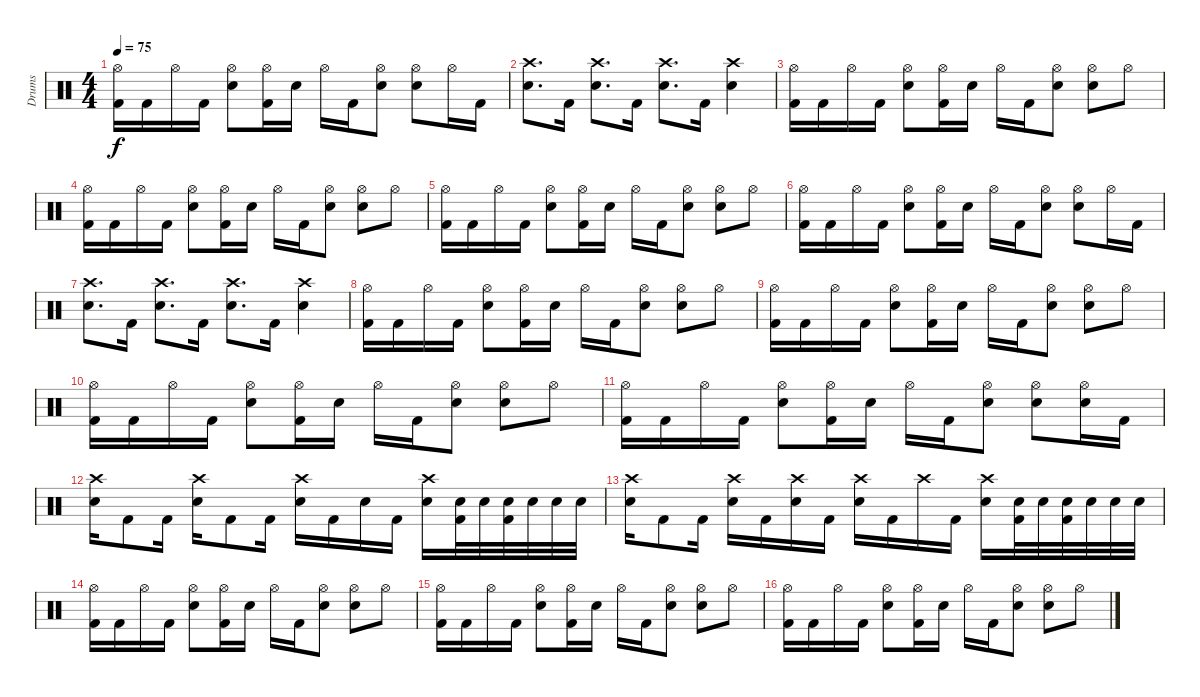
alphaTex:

\track ("Drums" "Drums") {instrument percussion}
\staff {score}
\articulation defaults
\ts (4 4)
\tempo 75
\clef neutral
\ks c
("Hi-Hat (open)" "Kick (hit) 2").16{dy f} "Kick (hit) 2".16 "Hi-Hat (open)".16 "Kick (hit) 2".16 ("Hi-Hat (open)" "Snare (hit) 2").8 ("Hi-Hat (open)" "Kick (hit) 2").16 "Snare (hit) 2".16 "Hi-Hat (open)".16 "Kick (hit) 2".16 ("Hi-Hat (open)" "Snare (hit) 2").8 ("Hi-Hat (open)" "Snare (hit) 2").8 "Hi-Hat (open)".16 "Kick (hit) 2".16 |
("Crash high (hit)" "Snare (hit) 2").8{d} "Kick (hit) 2".16 ("Crash high (hit)" "Snare (hit) 2").8{d} "Kick (hit) 2".16 ("Crash high (hit)" "Snare (hit) 2").8{d} "Kick (hit) 2".16 ("Crash high (hit)" "Snare (hit) 2").4 |
("Hi-Hat (open)" "Kick (hit) 2").16 "Kick (hit) 2".16 "Hi-Hat (open)".16 "Kick (hit) 2".16 ("Hi-Hat (open)" "Snare (hit) 2").8 ("Hi-Hat (open)" "Kick (hit) 2").16 "Snare (hit) 2".16 "Hi-Hat (open)".16 "Kick (hit) 2".16 ("Hi-Hat (open)" "Snare (hit) 2").8 ("Hi-Hat (open)" "Snare (hit) 2").8 "Hi-Hat (open)".8 |
("Hi-Hat (open)" "Kick (hit) 2").16 "Kick (hit) 2".16 "Hi-Hat (open)".16 "Kick (hit) 2".16 ("Hi-Hat (open)" "Snare (hit) 2").8 ("Hi-Hat (open)" "Kick (hit) 2").16 "Snare (hit) 2".16 "Hi-Hat (open)".16 "Kick (hit) 2".16 ("Hi-Hat (open)" "Snare (hit) 2").8 ("Hi-Hat (open)" "Snare (hit) 2").8 "Hi-Hat (open)".8 |
("Hi-Hat (open)" "Kick (hit) 2").16 "Kick (hit) 2".16 "Hi-Hat (open)".16 "Kick (hit) 2".16 ("Hi-Hat (open)" "Snare (hit) 2").8 ("Hi-Hat (open)" "Kick (hit) 2").16 "Snare (hit) 2".16 "Hi-Hat (open)".16 "Kick (hit) 2".16 ("Hi-Hat (open)" "Snare (hit) 2").8 ("Hi-Hat (open)" "Snare (hit) 2").8 "Hi-Hat (open)".8 |
("Hi-Hat (open)" "Kick (hit) 2").16 "Kick (hit) 2".16 "Hi-Hat (open)".16 "Kick (hit) 2".16 ("Hi-Hat (open)" "Snare (hit) 2").8 ("Hi-Hat (open)" "Kick (hit) 2").16 "Snare (hit) 2".16 "Hi-Hat (open)".16 "Kick (hit) 2".16 ("Hi-Hat (open)" "Snare (hit) 2").8 ("Hi-Hat (open)" "Snare (hit) 2").8 "Hi-Hat (open)".16 "Kick (hit) 2".16 |
("Crash high (hit)" "Snare (hit) 2").8{d} "Kick (hit) 2".16 ("Crash high (hit)" "Snare (hit) 2").8{d} "Kick (hit) 2".16 ("Crash high (hit)" "Snare (hit) 2").8{d} "Kick (hit) 2".16 ("Crash high (hit)" "Snare (hit) 2").4 |
("Hi-Hat (open)" "Kick (hit) 2").16 "Kick (hit) 2".16 "Hi-Hat (open)".16 "Kick (hit) 2".16 ("Hi-Hat (open)" "Snare (hit) 2").8 ("Hi-Hat (open)" "Kick (hit) 2").16 "Snare (hit) 2".16 "Hi-Hat (open)".16 "Kick (hit) 2".16 ("Hi-Hat (open)" "Snare (hit) 2").8 ("Hi-Hat (open)" "Snare (hit) 2").8 "Hi-Hat (open)".8 |
("Hi-Hat (open)" "Kick (hit) 2").16 "Kick (hit) 2".16 "Hi-Hat (open)".16 "Kick (hit) 2".16 ("Hi-Hat (open)" "Snare (hit) 2").8 ("Hi-Hat (open)" "Kick (hit) 2").16 "Snare (hit) 2".16 "Hi-Hat (open)".16 "Kick (hit) 2".16 ("Hi-Hat (open)" "Snare (hit) 2").8 ("Hi-Hat (open)" "Snare (hit) 2").8 "Hi-Hat (open)".8 |
("Hi-Hat (open)" "Kick (hit) 2").16 "Kick (hit) 2".16 "Hi-Hat (open)".16 "Kick (hit) 2".16 ("Hi-Hat (open)" "Snare (hit) 2").8 ("Hi-Hat (open)" "Kick (hit) 2").16 "Snare (hit) 2".16 "Hi-Hat (open)".16 "Kick (hit) 2".16 ("Hi-Hat (open)" "Snare (hit) 2").8 ("Hi-Hat (open)" "Snare (hit) 2").8 "Hi-Hat (open)".8 |
("Hi-Hat (open)" "Kick (hit) 2").16 "Kick (hit) 2".16 "Hi-Hat (open)".16 "Kick (hit) 2".16 ("Hi-Hat (open)" "Snare (hit) 2").8 ("Hi-Hat (open)" "Kick (hit) 2").16 "Snare (hit) 2".16 "Hi-Hat (open)".16 "Kick (hit) 2".16 ("Hi-Hat (open)" "Snare (hit) 2").8 ("Hi-Hat (open)" "Snare (hit) 2").8 ("Hi-Hat (open)" "Snare (hit) 2").16 "Kick (hit) 2".16 |
("Crash high (hit)" "Snare (hit) 2").16 "Kick (hit) 2".8 "Kick (hit) 2".16 ("Crash high (hit)" "Snare (hit) 2").16 "Kick (hit) 2".8 "Kick (hit) 2".16 ("Crash high (hit)" "Snare (hit) 2").16 "Kick (hit) 2".16 "Snare (hit) 2".16 "Kick (hit) 2".16 ("Crash high (hit)" "Snare (hit) 2").16 ("Snare (hit) 2" "Kick (hit) 2").32 "Snare (hit) 2".32 ("Snare (hit) 2" "Kick (hit) 2").32 "Snare (hit) 2".32 "Snare (hit) 2".32 "Snare (hit) 2".32 |
("Crash high (hit)" "Snare (hit) 2").16 "Kick (hit) 2".8 "Kick (hit) 2".16 ("Crash high (hit)" "Snare (hit) 2").16 "Kick (hit) 2".16 ("Crash high (hit)" "Snare (hit) 2").16 "Kick (hit) 2".16 ("Crash high (hit)" "Snare (hit) 2").16 "Kick (hit) 2".16 "Crash high (hit)".16 "Kick (hit) 2".16 ("Crash high (hit)" "Snare (hit) 2").16 ("Snare (hit) 2" "Kick (hit) 2").32 "Snare (hit) 2".32 ("Snare (hit) 2" "Kick (hit) 2").32 "Snare (hit) 2".32 "Snare (hit) 2".32 "Snare (hit) 2".32 |
("Hi-Hat (open)" "Kick (hit) 2").16 "Kick (hit) 2".16 "Hi-Hat (open)".16 "Kick (hit) 2".16 ("Hi-Hat (open)" "Snare (hit) 2").8 ("Hi-Hat (open)" "Kick (hit) 2").16 "Snare (hit) 2".16 "Hi-Hat (open)".16 "Kick (hit) 2".16 ("Hi-Hat (open)" "Snare (hit) 2").8 ("Hi-Hat (open)" "Snare (hit) 2").8 "Hi-Hat (open)".8 |
("Hi-Hat (open)" "Kick (hit) 2").16 "Kick (hit) 2".16 "Hi-Hat (open)".16 "Kick (hit) 2".16 ("Hi-Hat (open)" "Snare (hit) 2").8 ("Hi-Hat (open)" "Kick (hit) 2").16 "Snare (hit) 2".16 "Hi-Hat (open)".16 "Kick (hit) 2".16 ("Hi-Hat (open)" "Snare (hit) 2").8 ("Hi-Hat (open)" "Snare (hit) 2").8 "Hi-Hat (open)".8 |
("Hi-Hat (open)" "Kick (hit) 2").16 "Kick (hit) 2".16 "Hi-Hat (open)".16 "Kick (hit) 2".16 ("Hi-Hat (open)" "Snare (hit) 2").8 ("Hi-Hat (open)" "Kick (hit) 2").16 "Snare (hit) 2".16 "Hi-Hat (open)".16 "Kick (hit) 2".16 ("Hi-Hat (open)" "Snare (hit) 2").8 ("Hi-Hat (open)" "Snare (hit) 2").8 "Hi-Hat (open)".8
